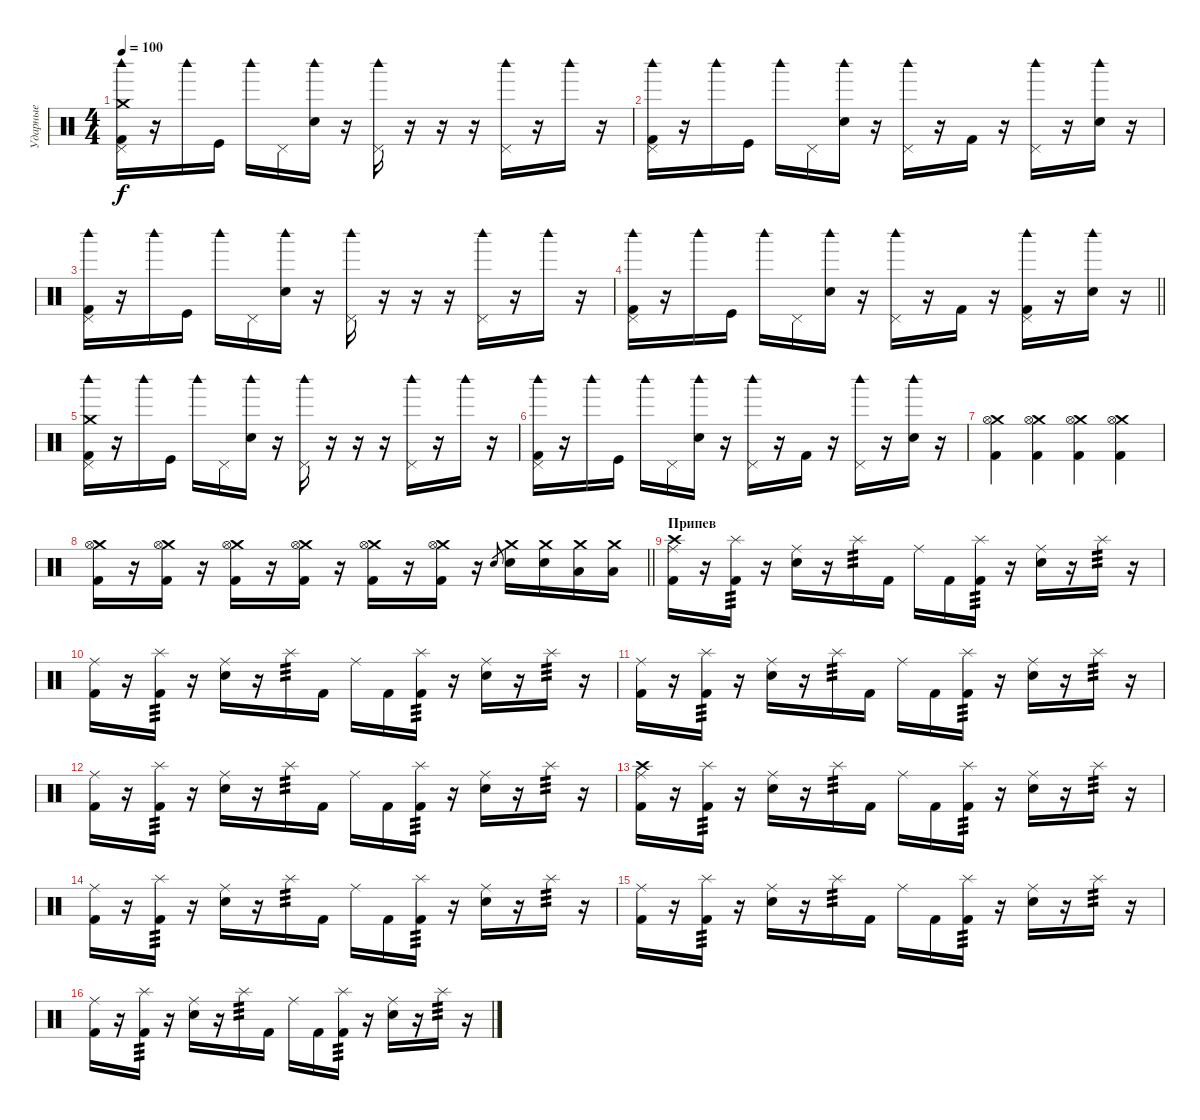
\track ("Ударные" "Ударные") {instrument percussion}
\staff {score}
\articulation defaults
\ts (4 4)
\tempo 100
\clef neutral
\ks c
("Crash medium (hit)" "Kick (hit) 2" "Pedal Hi-Hat (hit)" "Woodblock high (hit)").16{dy f} r.16 "Woodblock high (hit)".16 "Kick (hit)".16 "Woodblock high (hit)".16 "Pedal Hi-Hat (hit)".16 ("Snare (hit) 2" "Woodblock high (hit)").16 r.16 ("Pedal Hi-Hat (hit)" "Woodblock high (hit)").16 r.16 r.16 r.16 ("Pedal Hi-Hat (hit)" "Woodblock high (hit)").16 r.16 "Woodblock high (hit)".16 r.16 |
("Kick (hit) 2" "Pedal Hi-Hat (hit)" "Woodblock high (hit)").16 r.16 "Woodblock high (hit)".16 "Kick (hit)".16 "Woodblock high (hit)".16 "Pedal Hi-Hat (hit)".16 ("Snare (hit) 2" "Woodblock high (hit)").16 r.16 ("Pedal Hi-Hat (hit)" "Woodblock high (hit)").16 r.16 "Kick (hit) 2".16 r.16 ("Pedal Hi-Hat (hit)" "Woodblock high (hit)").16 r.16 ("Snare (hit) 2" "Woodblock high (hit)").16 r.16 |
("Kick (hit) 2" "Pedal Hi-Hat (hit)" "Woodblock high (hit)").16 r.16 "Woodblock high (hit)".16 "Kick (hit)".16 "Woodblock high (hit)".16 "Pedal Hi-Hat (hit)".16 ("Snare (hit) 2" "Woodblock high (hit)").16 r.16 ("Pedal Hi-Hat (hit)" "Woodblock high (hit)").16 r.16 r.16 r.16 ("Pedal Hi-Hat (hit)" "Woodblock high (hit)").16 r.16 "Woodblock high (hit)".16 r.16 |
\barLineRight lightlight
("Kick (hit) 2" "Pedal Hi-Hat (hit)" "Woodblock high (hit)").16 r.16 "Woodblock high (hit)".16 "Kick (hit)".16 "Woodblock high (hit)".16 "Pedal Hi-Hat (hit)".16 ("Snare (hit) 2" "Woodblock high (hit)").16 r.16 ("Pedal Hi-Hat (hit)" "Woodblock high (hit)").16 r.16 "Kick (hit) 2".16 r.16 ("Kick (hit) 2" "Pedal Hi-Hat (hit)" "Woodblock high (hit)").16 r.16 ("Snare (hit) 2" "Woodblock high (hit)").16 r.16 |
("Crash medium (hit)" "Kick (hit) 2" "Pedal Hi-Hat (hit)" "Woodblock high (hit)").16 r.16 "Woodblock high (hit)".16 "Kick (hit)".16 "Woodblock high (hit)".16 "Pedal Hi-Hat (hit)".16 ("Snare (hit) 2" "Woodblock high (hit)").16 r.16 ("Pedal Hi-Hat (hit)" "Woodblock high (hit)").16 r.16 r.16 r.16 ("Pedal Hi-Hat (hit)" "Woodblock high (hit)").16 r.16 "Woodblock high (hit)".16 r.16 |
("Kick (hit) 2" "Pedal Hi-Hat (hit)" "Woodblock high (hit)").16 r.16 "Woodblock high (hit)".16 "Kick (hit)".16 "Woodblock high (hit)".16 "Pedal Hi-Hat (hit)".16 ("Snare (hit) 2" "Woodblock high (hit)").16 r.16 ("Pedal Hi-Hat (hit)" "Woodblock high (hit)").16 r.16 "Kick (hit) 2".16 r.16 ("Pedal Hi-Hat (hit)" "Woodblock high (hit)").16 r.16 ("Snare (hit) 2" "Woodblock high (hit)").16 r.16 |
("Crash medium (hit)" "Hi-Hat (open)" "Kick (hit) 2").4 ("Crash medium (hit)" "Hi-Hat (open)" "Kick (hit) 2").4 ("Crash medium (hit)" "Hi-Hat (open)" "Kick (hit) 2").4 ("Crash medium (hit)" "Hi-Hat (open)" "Kick (hit) 2").4 |
\barLineRight lightlight
("Crash medium (hit)" "Hi-Hat (open)" "Kick (hit) 2").16 r.16 ("Crash medium (hit)" "Hi-Hat (open)" "Kick (hit) 2").16 r.16 ("Crash medium (hit)" "Hi-Hat (open)" "Kick (hit) 2").16 r.16 ("Crash medium (hit)" "Hi-Hat (open)" "Kick (hit) 2").16 r.16 ("Crash medium (hit)" "Hi-Hat (open)" "Kick (hit) 2").16 r.16 ("Crash medium (hit)" "Hi-Hat (open)" "Kick (hit) 2").16 r.16 "Electric Snare (hit)".8{gr} ("Crash medium (hit)" "Electric Snare (hit)").16 ("Crash medium (hit)" "Electric Snare (hit)").16 ("Crash medium (hit)" "Low Tom (hit)").16 ("Crash medium (hit)" "Low Tom (hit)").16 |
\section ("" "Припев")
("Crash high (hit)" "Kick (hit) 2" "Ride (middle)").16 r.16 ("Kick (hit) 2" "Splash (hit)").16{tp 3} r.16 ("Electric Snare (hit)" "Ride (middle)").16 r.16 "Splash (hit)".16{tp 3} "Kick (hit) 2".16 "Ride (middle)".16 "Kick (hit) 2".16 ("Kick (hit) 2" "Splash (hit)").16{tp 3} r.16 ("Electric Snare (hit)" "Ride (middle)").16 r.16 "Splash (hit)".16{tp 3} r.16 |
("Kick (hit) 2" "Ride (middle)").16 r.16 ("Kick (hit) 2" "Splash (hit)").16{tp 3} r.16 ("Electric Snare (hit)" "Ride (middle)").16 r.16 "Splash (hit)".16{tp 3} "Kick (hit) 2".16 "Ride (middle)".16 "Kick (hit) 2".16 ("Kick (hit) 2" "Splash (hit)").16{tp 3} r.16 ("Electric Snare (hit)" "Ride (middle)").16 r.16 "Splash (hit)".16{tp 3} r.16 |
("Kick (hit) 2" "Ride (middle)").16 r.16 ("Kick (hit) 2" "Splash (hit)").16{tp 3} r.16 ("Electric Snare (hit)" "Ride (middle)").16 r.16 "Splash (hit)".16{tp 3} "Kick (hit) 2".16 "Ride (middle)".16 "Kick (hit) 2".16 ("Kick (hit) 2" "Splash (hit)").16{tp 3} r.16 ("Electric Snare (hit)" "Ride (middle)").16 r.16 "Splash (hit)".16{tp 3} r.16 |
("Kick (hit) 2" "Ride (middle)").16 r.16 ("Kick (hit) 2" "Splash (hit)").16{tp 3} r.16 ("Electric Snare (hit)" "Ride (middle)").16 r.16 "Splash (hit)".16{tp 3} "Kick (hit) 2".16 "Ride (middle)".16 "Kick (hit) 2".16 ("Kick (hit) 2" "Splash (hit)").16{tp 3} r.16 ("Electric Snare (hit)" "Ride (middle)").16 r.16 "Splash (hit)".16{tp 3} r.16 |
("Crash high (hit)" "Kick (hit) 2" "Ride (middle)").16 r.16 ("Kick (hit) 2" "Splash (hit)").16{tp 3} r.16 ("Electric Snare (hit)" "Ride (middle)").16 r.16 "Splash (hit)".16{tp 3} "Kick (hit) 2".16 "Ride (middle)".16 "Kick (hit) 2".16 ("Kick (hit) 2" "Splash (hit)").16{tp 3} r.16 ("Electric Snare (hit)" "Ride (middle)").16 r.16 "Splash (hit)".16{tp 3} r.16 |
("Kick (hit) 2" "Ride (middle)").16 r.16 ("Kick (hit) 2" "Splash (hit)").16{tp 3} r.16 ("Electric Snare (hit)" "Ride (middle)").16 r.16 "Splash (hit)".16{tp 3} "Kick (hit) 2".16 "Ride (middle)".16 "Kick (hit) 2".16 ("Kick (hit) 2" "Splash (hit)").16{tp 3} r.16 ("Electric Snare (hit)" "Ride (middle)").16 r.16 "Splash (hit)".16{tp 3} r.16 |
("Kick (hit) 2" "Ride (middle)").16 r.16 ("Kick (hit) 2" "Splash (hit)").16{tp 3} r.16 ("Electric Snare (hit)" "Ride (middle)").16 r.16 "Splash (hit)".16{tp 3} "Kick (hit) 2".16 "Ride (middle)".16 "Kick (hit) 2".16 ("Kick (hit) 2" "Splash (hit)").16{tp 3} r.16 ("Electric Snare (hit)" "Ride (middle)").16 r.16 "Splash (hit)".16{tp 3} r.16 |
("Kick (hit) 2" "Ride (middle)").16 r.16 ("Kick (hit) 2" "Splash (hit)").16{tp 3} r.16 ("Electric Snare (hit)" "Ride (middle)").16 r.16 "Splash (hit)".16{tp 3} "Kick (hit) 2".16 "Ride (middle)".16 "Kick (hit) 2".16 ("Kick (hit) 2" "Splash (hit)").16{tp 3} r.16 ("Electric Snare (hit)" "Ride (middle)").16 r.16 "Splash (hit)".16{tp 3} r.16
